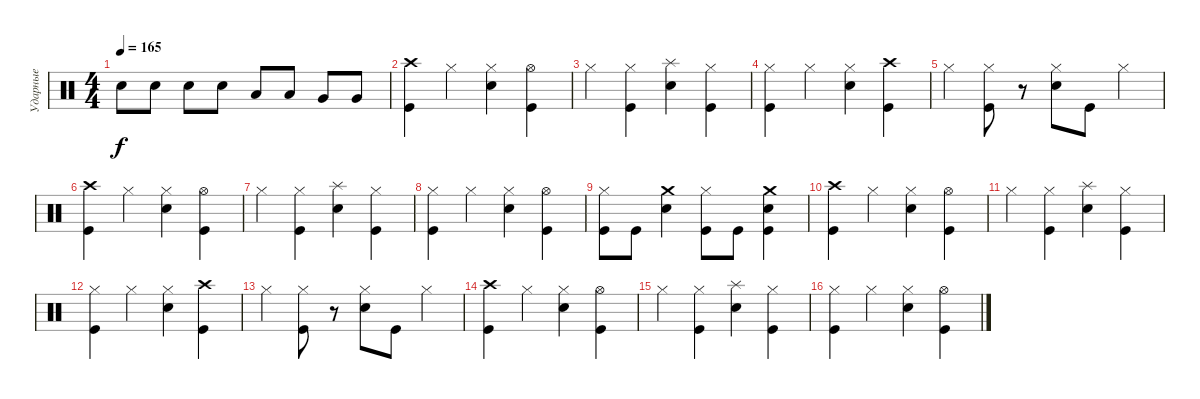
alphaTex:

\track ("Ударные" "Ударные") {instrument percussion}
\staff {score}
\articulation defaults
\ts (4 4)
\tempo 165
\clef neutral
\ks c "Electric Snare (hit)".8{dy f} "Electric Snare (hit)".8 "Electric Snare (hit)".8 "Electric Snare (hit)".8 "Low Tom (hit)".8 "Low Tom (hit)".8 "Very Low Tom (hit)".8 "Very Low Tom (hit)".8
|
("Crash high (hit)" "Kick (hit)").4 "Hi-Hat (closed)".4 ("Hi-Hat (closed)" "Electric Snare (hit)").4 ("Hi-Hat (open)" "Kick (hit)").4 |
"Hi-Hat (closed)".4 ("Hi-Hat (closed)" "Kick (hit)").4 ("Splash (hit)" "Electric Snare (hit)").4 ("Hi-Hat (closed)" "Kick (hit)").4 |
("Hi-Hat (closed)" "Kick (hit)").4 "Hi-Hat (closed)".4 ("Hi-Hat (closed)" "Electric Snare (hit)").4 ("Crash high (hit)" "Kick (hit)").4 |
"Hi-Hat (closed)".4 ("Hi-Hat (closed)" "Kick (hit)").8 r.8 ("Hi-Hat (closed)" "Electric Snare (hit)").8 "Kick (hit)".8 "Hi-Hat (closed)".4 |
("Crash high (hit)" "Kick (hit)").4 "Hi-Hat (closed)".4 ("Hi-Hat (closed)" "Electric Snare (hit)").4 ("Hi-Hat (open)" "Kick (hit)").4 |
"Hi-Hat (closed)".4 ("Hi-Hat (closed)" "Kick (hit)").4 ("Splash (hit)" "Electric Snare (hit)").4 ("Hi-Hat (closed)" "Kick (hit)").4 |
("Hi-Hat (closed)" "Kick (hit)").4 "Hi-Hat (closed)".4 ("Hi-Hat (closed)" "Electric Snare (hit)").4 ("Hi-Hat (open)" "Kick (hit)").4 |
("Hi-Hat (closed)" "Kick (hit)").8 "Kick (hit)".8 ("Crash medium (hit)" "Electric Snare (hit)").4 ("Hi-Hat (closed)" "Kick (hit)").8 "Kick (hit)".8 ("Crash medium (hit)" "Electric Snare (hit)" "Kick (hit)").4 |
("Crash high (hit)" "Kick (hit)").4 "Hi-Hat (closed)".4 ("Hi-Hat (closed)" "Electric Snare (hit)").4 ("Hi-Hat (open)" "Kick (hit)").4 |
"Hi-Hat (closed)".4 ("Hi-Hat (closed)" "Kick (hit)").4 ("Splash (hit)" "Electric Snare (hit)").4 ("Hi-Hat (closed)" "Kick (hit)").4 |
("Hi-Hat (closed)" "Kick (hit)").4 "Hi-Hat (closed)".4 ("Hi-Hat (closed)" "Electric Snare (hit)").4 ("Crash high (hit)" "Kick (hit)").4 |
"Hi-Hat (closed)".4 ("Hi-Hat (closed)" "Kick (hit)").8 r.8 ("Hi-Hat (closed)" "Electric Snare (hit)").8 "Kick (hit)".8 "Hi-Hat (closed)".4 |
("Crash high (hit)" "Kick (hit)").4 "Hi-Hat (closed)".4 ("Hi-Hat (closed)" "Electric Snare (hit)").4 ("Hi-Hat (open)" "Kick (hit)").4 |
"Hi-Hat (closed)".4 ("Hi-Hat (closed)" "Kick (hit)").4 ("Splash (hit)" "Electric Snare (hit)").4 ("Hi-Hat (closed)" "Kick (hit)").4 |
("Hi-Hat (closed)" "Kick (hit)").4 "Hi-Hat (closed)".4 ("Hi-Hat (closed)" "Electric Snare (hit)").4 ("Hi-Hat (open)" "Kick (hit)").4
